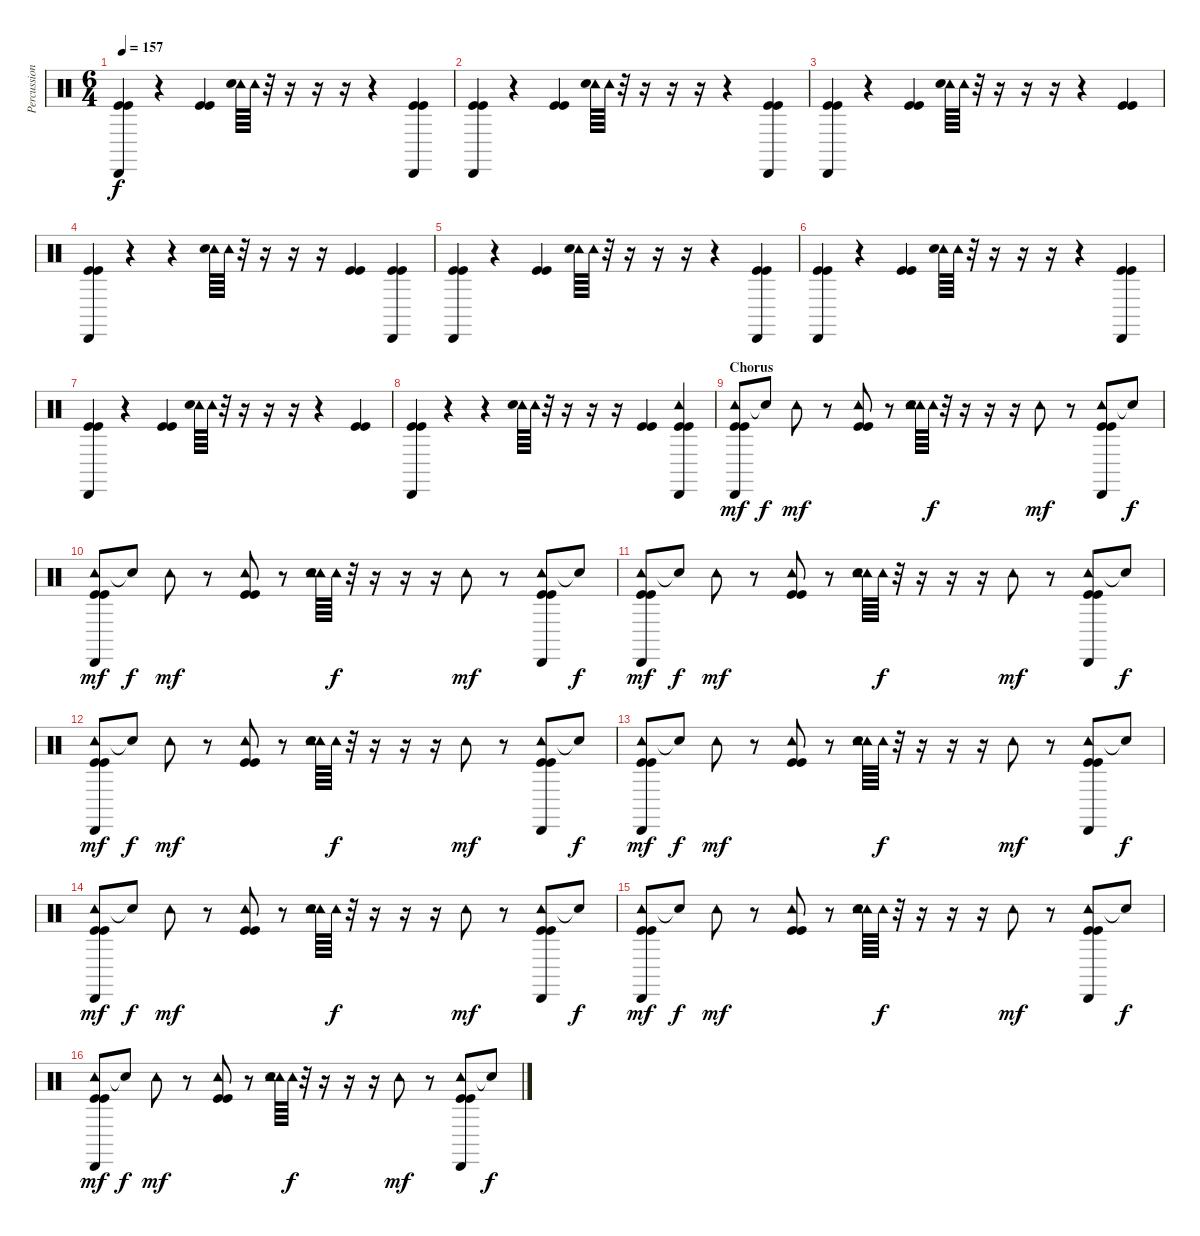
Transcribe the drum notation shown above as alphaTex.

\track ("Percussions" "Percussion") {instrument percussion}
\staff {score}
\articulation defaults
\ts (6 4)
\tempo 157
\clef neutral
\ks c
("Cabasa (hit)" "Kick (hit)" "Kick (hit)").4{dy f} r.4 ("Kick (hit)" "Kick (hit)").4 ("Tambourine (hit)" "Snare (hit) 2").64 "Tambourine (hit)".64 r.32 r.16 r.16 r.16 r.4 ("Cabasa (hit)" "Kick (hit)" "Kick (hit)").4 |
("Cabasa (hit)" "Kick (hit)" "Kick (hit)").4 r.4 ("Kick (hit)" "Kick (hit)").4 ("Tambourine (hit)" "Snare (hit) 2").64 "Tambourine (hit)".64 r.32 r.16 r.16 r.16 r.4 ("Cabasa (hit)" "Kick (hit)" "Kick (hit)").4 |
("Cabasa (hit)" "Kick (hit)" "Kick (hit)").4 r.4 ("Kick (hit)" "Kick (hit)").4 ("Tambourine (hit)" "Snare (hit) 2").64 "Tambourine (hit)".64 r.32 r.16 r.16 r.16 r.4 ("Kick (hit)" "Kick (hit)").4 |
("Cabasa (hit)" "Kick (hit)" "Kick (hit)").4 r.4 r.4 ("Tambourine (hit)" "Snare (hit) 2").64 "Tambourine (hit)".64 r.32 r.16 r.16 r.16 ("Kick (hit)" "Kick (hit)").4 ("Cabasa (hit)" "Kick (hit)" "Kick (hit)").4 |
("Cabasa (hit)" "Kick (hit)" "Kick (hit)").4 r.4 ("Kick (hit)" "Kick (hit)").4 ("Tambourine (hit)" "Snare (hit) 2").64 "Tambourine (hit)".64 r.32 r.16 r.16 r.16 r.4 ("Cabasa (hit)" "Kick (hit)" "Kick (hit)").4 |
("Cabasa (hit)" "Kick (hit)" "Kick (hit)").4 r.4 ("Kick (hit)" "Kick (hit)").4 ("Tambourine (hit)" "Snare (hit) 2").64 "Tambourine (hit)".64 r.32 r.16 r.16 r.16 r.4 ("Cabasa (hit)" "Kick (hit)" "Kick (hit)").4 |
("Cabasa (hit)" "Kick (hit)" "Kick (hit)").4 r.4 ("Kick (hit)" "Kick (hit)").4 ("Tambourine (hit)" "Snare (hit) 2").64 "Tambourine (hit)".64 r.32 r.16 r.16 r.16 r.4 ("Kick (hit)" "Kick (hit)").4 |
("Cabasa (hit)" "Kick (hit)" "Kick (hit)").4 r.4 r.4 ("Tambourine (hit)" "Snare (hit) 2").64 "Tambourine (hit)".64 r.32 r.16 r.16 r.16 ("Kick (hit)" "Kick (hit)").4 ("Tambourine (hit)" "Cabasa (hit)" "Kick (hit)" "Kick (hit)").4 |
\section ("" "Chorus")
("Tambourine (hit)" "Cabasa (hit)" "Kick (hit)" "Kick (hit)").8{dy mf} "Snare (hit)"{t}.8{dy f} "Tambourine (hit)".8{dy mf} r.8 ("Tambourine (hit)" "Kick (hit)" "Kick (hit)").8 r.8 ("Tambourine (hit)" "Tambourine (hit)" "Snare (hit) 2").64 "Tambourine (hit)".64{dy f} r.32 r.16 r.16 r.16 "Tambourine (hit)".8{dy mf} r.8 ("Tambourine (hit)" "Cabasa (hit)" "Kick (hit)" "Kick (hit)").8 "Snare (hit)"{t}.8{dy f} |
("Tambourine (hit)" "Cabasa (hit)" "Kick (hit)" "Kick (hit)").8{dy mf} "Snare (hit)"{t}.8{dy f} "Tambourine (hit)".8{dy mf} r.8 ("Tambourine (hit)" "Kick (hit)" "Kick (hit)").8 r.8 ("Tambourine (hit)" "Tambourine (hit)" "Snare (hit) 2").64 "Tambourine (hit)".64{dy f} r.32 r.16 r.16 r.16 "Tambourine (hit)".8{dy mf} r.8 ("Tambourine (hit)" "Cabasa (hit)" "Kick (hit)" "Kick (hit)").8 "Snare (hit)"{t}.8{dy f} |
("Tambourine (hit)" "Cabasa (hit)" "Kick (hit)" "Kick (hit)").8{dy mf} "Snare (hit)"{t}.8{dy f} "Tambourine (hit)".8{dy mf} r.8 ("Tambourine (hit)" "Kick (hit)" "Kick (hit)").8 r.8 ("Tambourine (hit)" "Tambourine (hit)" "Snare (hit) 2").64 "Tambourine (hit)".64{dy f} r.32 r.16 r.16 r.16 "Tambourine (hit)".8{dy mf} r.8 ("Tambourine (hit)" "Cabasa (hit)" "Kick (hit)" "Kick (hit)").8 "Snare (hit)"{t}.8{dy f} |
("Tambourine (hit)" "Cabasa (hit)" "Kick (hit)" "Kick (hit)").8{dy mf} "Snare (hit)"{t}.8{dy f} "Tambourine (hit)".8{dy mf} r.8 ("Tambourine (hit)" "Kick (hit)" "Kick (hit)").8 r.8 ("Tambourine (hit)" "Tambourine (hit)" "Snare (hit) 2").64 "Tambourine (hit)".64{dy f} r.32 r.16 r.16 r.16 "Tambourine (hit)".8{dy mf} r.8 ("Tambourine (hit)" "Cabasa (hit)" "Kick (hit)" "Kick (hit)").8 "Snare (hit)"{t}.8{dy f} |
("Tambourine (hit)" "Cabasa (hit)" "Kick (hit)" "Kick (hit)").8{dy mf} "Snare (hit)"{t}.8{dy f} "Tambourine (hit)".8{dy mf} r.8 ("Tambourine (hit)" "Kick (hit)" "Kick (hit)").8 r.8 ("Tambourine (hit)" "Tambourine (hit)" "Snare (hit) 2").64 "Tambourine (hit)".64{dy f} r.32 r.16 r.16 r.16 "Tambourine (hit)".8{dy mf} r.8 ("Tambourine (hit)" "Cabasa (hit)" "Kick (hit)" "Kick (hit)").8 "Snare (hit)"{t}.8{dy f} |
("Tambourine (hit)" "Cabasa (hit)" "Kick (hit)" "Kick (hit)").8{dy mf} "Snare (hit)"{t}.8{dy f} "Tambourine (hit)".8{dy mf} r.8 ("Tambourine (hit)" "Kick (hit)" "Kick (hit)").8 r.8 ("Tambourine (hit)" "Tambourine (hit)" "Snare (hit) 2").64 "Tambourine (hit)".64{dy f} r.32 r.16 r.16 r.16 "Tambourine (hit)".8{dy mf} r.8 ("Tambourine (hit)" "Cabasa (hit)" "Kick (hit)" "Kick (hit)").8 "Snare (hit)"{t}.8{dy f} |
("Tambourine (hit)" "Cabasa (hit)" "Kick (hit)" "Kick (hit)").8{dy mf} "Snare (hit)"{t}.8{dy f} "Tambourine (hit)".8{dy mf} r.8 ("Tambourine (hit)" "Kick (hit)" "Kick (hit)").8 r.8 ("Tambourine (hit)" "Tambourine (hit)" "Snare (hit) 2").64 "Tambourine (hit)".64{dy f} r.32 r.16 r.16 r.16 "Tambourine (hit)".8{dy mf} r.8 ("Tambourine (hit)" "Cabasa (hit)" "Kick (hit)" "Kick (hit)").8 "Snare (hit)"{t}.8{dy f} |
("Tambourine (hit)" "Cabasa (hit)" "Kick (hit)" "Kick (hit)").8{dy mf} "Snare (hit)"{t}.8{dy f} "Tambourine (hit)".8{dy mf} r.8 ("Tambourine (hit)" "Kick (hit)" "Kick (hit)").8 r.8 ("Tambourine (hit)" "Tambourine (hit)" "Snare (hit) 2").64 "Tambourine (hit)".64{dy f} r.32 r.16 r.16 r.16 "Tambourine (hit)".8{dy mf} r.8 ("Tambourine (hit)" "Cabasa (hit)" "Kick (hit)" "Kick (hit)").8 "Snare (hit)"{t}.8{dy f}
